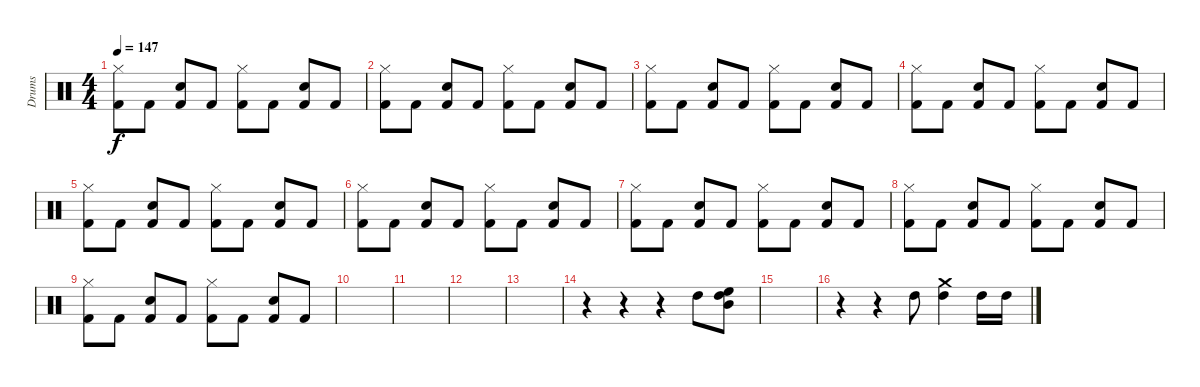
\track ("Drums" "Drums") {instrument percussion}
\staff {score}
\articulation defaults
\ts (4 4)
\tempo 147
\clef neutral
\ks c
("Hi-Hat (closed)" "Kick (hit) 2").8{dy f} "Kick (hit) 2".8 ("Snare (hit) 2" "Kick (hit) 2").8 "Kick (hit) 2".8 ("Hi-Hat (closed)" "Kick (hit) 2").8 "Kick (hit) 2".8 ("Snare (hit) 2" "Kick (hit) 2").8 "Kick (hit) 2".8 |
("Hi-Hat (closed)" "Kick (hit) 2").8 "Kick (hit) 2".8 ("Snare (hit) 2" "Kick (hit) 2").8 "Kick (hit) 2".8 ("Hi-Hat (closed)" "Kick (hit) 2").8 "Kick (hit) 2".8 ("Snare (hit) 2" "Kick (hit) 2").8 "Kick (hit) 2".8 |
("Hi-Hat (closed)" "Kick (hit) 2").8 "Kick (hit) 2".8 ("Snare (hit) 2" "Kick (hit) 2").8 "Kick (hit) 2".8 ("Hi-Hat (closed)" "Kick (hit) 2").8 "Kick (hit) 2".8 ("Snare (hit) 2" "Kick (hit) 2").8 "Kick (hit) 2".8 |
("Hi-Hat (closed)" "Kick (hit) 2").8 "Kick (hit) 2".8 ("Snare (hit) 2" "Kick (hit) 2").8 "Kick (hit) 2".8 ("Hi-Hat (closed)" "Kick (hit) 2").8 "Kick (hit) 2".8 ("Snare (hit) 2" "Kick (hit) 2").8 "Kick (hit) 2".8 |
("Hi-Hat (closed)" "Kick (hit) 2").8 "Kick (hit) 2".8 ("Snare (hit) 2" "Kick (hit) 2").8 "Kick (hit) 2".8 ("Hi-Hat (closed)" "Kick (hit) 2").8 "Kick (hit) 2".8 ("Snare (hit) 2" "Kick (hit) 2").8 "Kick (hit) 2".8 |
("Hi-Hat (closed)" "Kick (hit) 2").8 "Kick (hit) 2".8 ("Snare (hit) 2" "Kick (hit) 2").8 "Kick (hit) 2".8 ("Hi-Hat (closed)" "Kick (hit) 2").8 "Kick (hit) 2".8 ("Snare (hit) 2" "Kick (hit) 2").8 "Kick (hit) 2".8 |
("Hi-Hat (closed)" "Kick (hit) 2").8 "Kick (hit) 2".8 ("Snare (hit) 2" "Kick (hit) 2").8 "Kick (hit) 2".8 ("Hi-Hat (closed)" "Kick (hit) 2").8 "Kick (hit) 2".8 ("Snare (hit) 2" "Kick (hit) 2").8 "Kick (hit) 2".8 |
("Hi-Hat (closed)" "Kick (hit) 2").8 "Kick (hit) 2".8 ("Snare (hit) 2" "Kick (hit) 2").8 "Kick (hit) 2".8 ("Hi-Hat (closed)" "Kick (hit) 2").8 "Kick (hit) 2".8 ("Snare (hit) 2" "Kick (hit) 2").8 "Kick (hit) 2".8 |
("Hi-Hat (closed)" "Kick (hit) 2").8 "Kick (hit) 2".8 ("Snare (hit) 2" "Kick (hit) 2").8 "Kick (hit) 2".8 ("Hi-Hat (closed)" "Kick (hit) 2").8 "Kick (hit) 2".8 ("Snare (hit) 2" "Kick (hit) 2").8 "Kick (hit) 2".8 |
|
|
|
|
r.4 r.4 r.4 "High Tom (hit)".8 ("High Tom (hit)" "High Floor Tom (hit)" "Mid Tom (hit)").8 |
|
r.4 r.4 "High Tom (hit)".8 ("Crash medium (hit)" "High Tom (hit)").4 "High Tom (hit)".16 "High Tom (hit)".16
